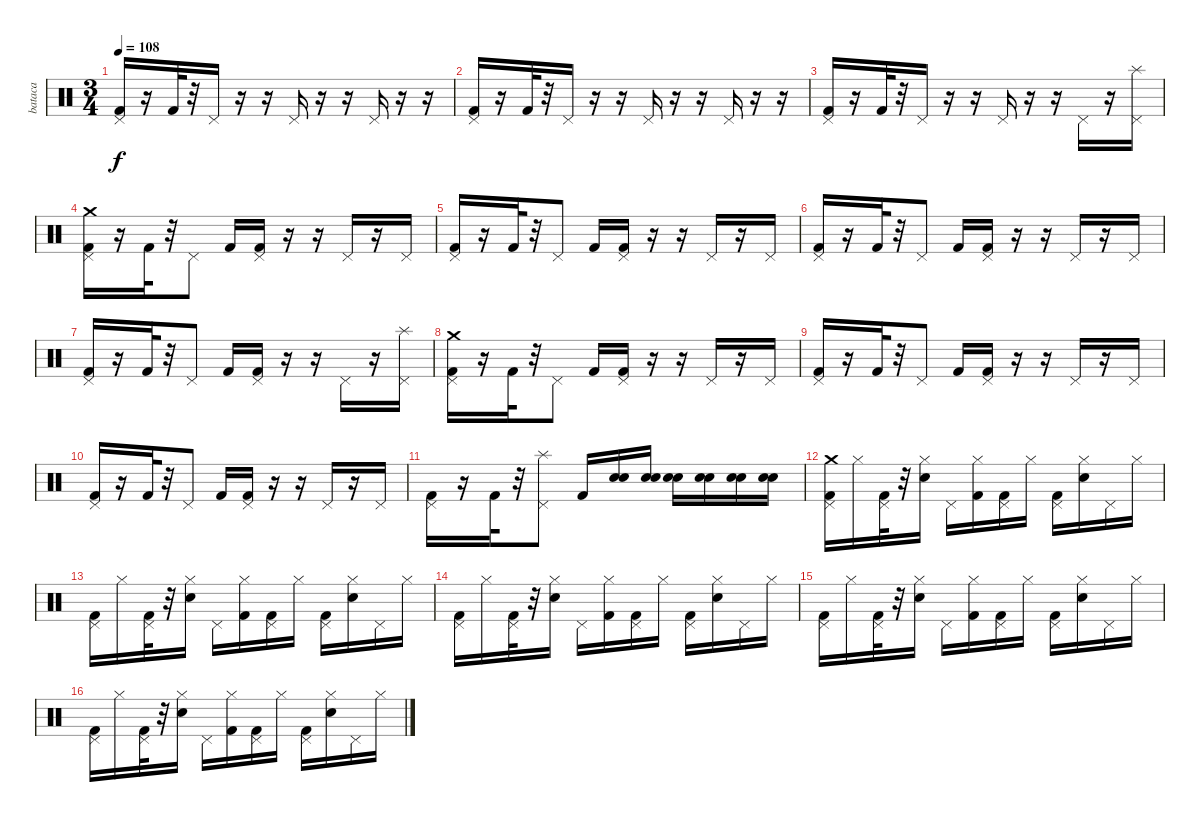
\track ("bataca" "bataca") {instrument percussion}
\staff {score}
\articulation defaults
\ts (3 4)
\tempo 108
\clef neutral
\ks c
("Kick (hit) 2" "Pedal Hi-Hat (hit)").16{dy f} r.16 "Kick (hit) 2".32 r.32 "Pedal Hi-Hat (hit)".16 r.16 r.16 "Pedal Hi-Hat (hit)".16 r.16 r.16 "Pedal Hi-Hat (hit)".16 r.16 r.16 |
("Kick (hit) 2" "Pedal Hi-Hat (hit)").16 r.16 "Kick (hit) 2".32 r.32 "Pedal Hi-Hat (hit)".16 r.16 r.16 "Pedal Hi-Hat (hit)".16 r.16 r.16 "Pedal Hi-Hat (hit)".16 r.16 r.16 |
("Kick (hit) 2" "Pedal Hi-Hat (hit)").16 r.16 "Kick (hit) 2".32 r.32 "Pedal Hi-Hat (hit)".16 r.16 r.16 "Pedal Hi-Hat (hit)".16 r.16 r.16 "Pedal Hi-Hat (hit)".16 r.16 ("Splash (hit)" "Pedal Hi-Hat (hit)").16 |
("Kick (hit) 2" "Pedal Hi-Hat (hit)" "Crash medium (hit)").16 r.16 "Kick (hit) 2".32 r.32 "Pedal Hi-Hat (hit)".8 "Kick (hit) 2".16 ("Kick (hit) 2" "Pedal Hi-Hat (hit)").16 r.16 r.16 "Pedal Hi-Hat (hit)".16 r.16 "Pedal Hi-Hat (hit)".16 |
("Kick (hit) 2" "Pedal Hi-Hat (hit)").16 r.16 "Kick (hit) 2".32 r.32 "Pedal Hi-Hat (hit)".8 "Kick (hit) 2".16 ("Kick (hit) 2" "Pedal Hi-Hat (hit)").16 r.16 r.16 "Pedal Hi-Hat (hit)".16 r.16 "Pedal Hi-Hat (hit)".16 |
("Kick (hit) 2" "Pedal Hi-Hat (hit)").16 r.16 "Kick (hit) 2".32 r.32 "Pedal Hi-Hat (hit)".8 "Kick (hit) 2".16 ("Kick (hit) 2" "Pedal Hi-Hat (hit)").16 r.16 r.16 "Pedal Hi-Hat (hit)".16 r.16 "Pedal Hi-Hat (hit)".16 |
("Kick (hit) 2" "Pedal Hi-Hat (hit)").16 r.16 "Kick (hit) 2".32 r.32 "Pedal Hi-Hat (hit)".8 "Kick (hit) 2".16 ("Kick (hit) 2" "Pedal Hi-Hat (hit)").16 r.16 r.16 "Pedal Hi-Hat (hit)".16 r.16 ("Splash (hit)" "Pedal Hi-Hat (hit)").16 |
("Kick (hit) 2" "Pedal Hi-Hat (hit)" "Crash medium (hit)").16 r.16 "Kick (hit) 2".32 r.32 "Pedal Hi-Hat (hit)".8 "Kick (hit) 2".16 ("Kick (hit) 2" "Pedal Hi-Hat (hit)").16 r.16 r.16 "Pedal Hi-Hat (hit)".16 r.16 "Pedal Hi-Hat (hit)".16 |
("Kick (hit) 2" "Pedal Hi-Hat (hit)").16 r.16 "Kick (hit) 2".32 r.32 "Pedal Hi-Hat (hit)".8 "Kick (hit) 2".16 ("Kick (hit) 2" "Pedal Hi-Hat (hit)").16 r.16 r.16 "Pedal Hi-Hat (hit)".16 r.16 "Pedal Hi-Hat (hit)".16 |
("Kick (hit) 2" "Pedal Hi-Hat (hit)").16 r.16 "Kick (hit) 2".32 r.32 "Pedal Hi-Hat (hit)".8 "Kick (hit) 2".16 ("Kick (hit) 2" "Pedal Hi-Hat (hit)").16 r.16 r.16 "Pedal Hi-Hat (hit)".16 r.16 "Pedal Hi-Hat (hit)".16 |
("Kick (hit) 2" "Pedal Hi-Hat (hit)").16 r.16 "Kick (hit) 2".32 r.32 ("Pedal Hi-Hat (hit)" "Splash (hit)").8 "Kick (hit) 2".16 ("Electric Snare (hit)" "Snare (hit) 2").16 ("Electric Snare (hit)" "Snare (hit) 2").16 ("Electric Snare (hit)" "Snare (hit) 2").16 ("Electric Snare (hit)" "Snare (hit) 2").16 ("Electric Snare (hit)" "Snare (hit) 2").16 ("Electric Snare (hit)" "Snare (hit) 2").16 |
("Kick (hit) 2" "Pedal Hi-Hat (hit)" "Crash medium (hit)").16 "Hi-Hat (closed)".16 ("Kick (hit) 2" "Pedal Hi-Hat (hit)").32 r.32 ("Electric Snare (hit)" "Hi-Hat (closed)").16 "Pedal Hi-Hat (hit)".16 ("Kick (hit) 2" "Hi-Hat (closed)").16 ("Kick (hit) 2" "Pedal Hi-Hat (hit)").16 "Hi-Hat (closed)".16 ("Kick (hit) 2" "Pedal Hi-Hat (hit)").16 ("Electric Snare (hit)" "Hi-Hat (closed)").16 "Pedal Hi-Hat (hit)".16 "Hi-Hat (closed)".16 |
("Kick (hit) 2" "Pedal Hi-Hat (hit)").16 "Hi-Hat (closed)".16 ("Kick (hit) 2" "Pedal Hi-Hat (hit)").32 r.32 ("Electric Snare (hit)" "Hi-Hat (closed)").16 "Pedal Hi-Hat (hit)".16 ("Kick (hit) 2" "Hi-Hat (closed)").16 ("Kick (hit) 2" "Pedal Hi-Hat (hit)").16 "Hi-Hat (closed)".16 ("Kick (hit) 2" "Pedal Hi-Hat (hit)").16 ("Electric Snare (hit)" "Hi-Hat (closed)").16 "Pedal Hi-Hat (hit)".16 "Hi-Hat (closed)".16 |
("Kick (hit) 2" "Pedal Hi-Hat (hit)").16 "Hi-Hat (closed)".16 ("Kick (hit) 2" "Pedal Hi-Hat (hit)").32 r.32 ("Electric Snare (hit)" "Hi-Hat (closed)").16 "Pedal Hi-Hat (hit)".16 ("Kick (hit) 2" "Hi-Hat (closed)").16 ("Kick (hit) 2" "Pedal Hi-Hat (hit)").16 "Hi-Hat (closed)".16 ("Kick (hit) 2" "Pedal Hi-Hat (hit)").16 ("Electric Snare (hit)" "Hi-Hat (closed)").16 "Pedal Hi-Hat (hit)".16 "Hi-Hat (closed)".16 |
("Kick (hit) 2" "Pedal Hi-Hat (hit)").16 "Hi-Hat (closed)".16 ("Kick (hit) 2" "Pedal Hi-Hat (hit)").32 r.32 ("Electric Snare (hit)" "Hi-Hat (closed)").16 "Pedal Hi-Hat (hit)".16 ("Kick (hit) 2" "Hi-Hat (closed)").16 ("Kick (hit) 2" "Pedal Hi-Hat (hit)").16 "Hi-Hat (closed)".16 ("Kick (hit) 2" "Pedal Hi-Hat (hit)").16 ("Electric Snare (hit)" "Hi-Hat (closed)").16 "Pedal Hi-Hat (hit)".16 "Hi-Hat (closed)".16 |
("Kick (hit) 2" "Pedal Hi-Hat (hit)").16 "Hi-Hat (closed)".16 ("Kick (hit) 2" "Pedal Hi-Hat (hit)").32 r.32 ("Electric Snare (hit)" "Hi-Hat (closed)").16 "Pedal Hi-Hat (hit)".16 ("Kick (hit) 2" "Hi-Hat (closed)").16 ("Kick (hit) 2" "Pedal Hi-Hat (hit)").16 "Hi-Hat (closed)".16 ("Kick (hit) 2" "Pedal Hi-Hat (hit)").16 ("Electric Snare (hit)" "Hi-Hat (closed)").16 "Pedal Hi-Hat (hit)".16 "Hi-Hat (closed)".16
